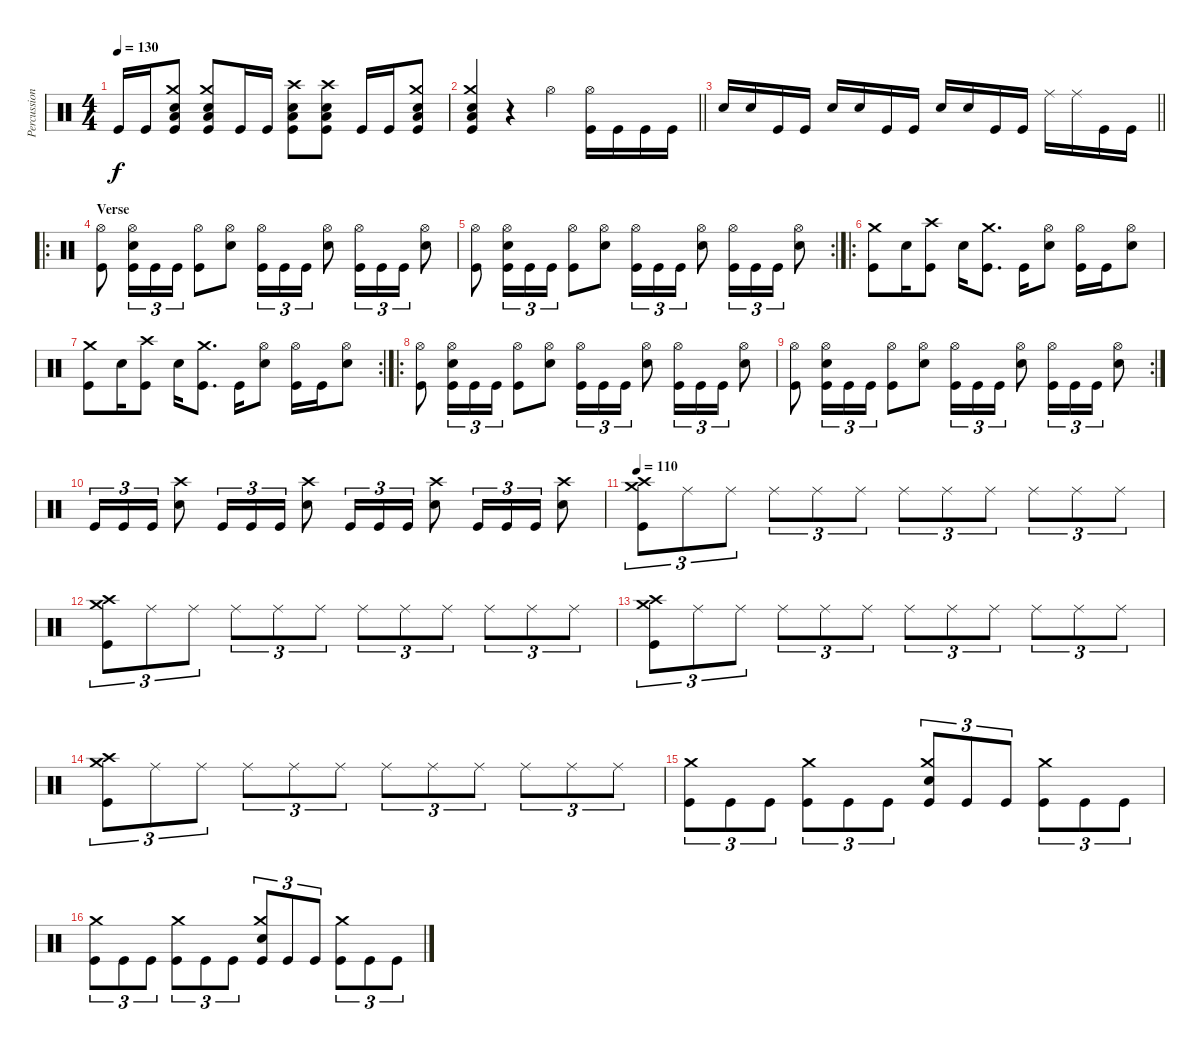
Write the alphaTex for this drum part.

\track ("Percussion" "Percussion") {instrument percussion}
\staff {score}
\articulation defaults
\ts (4 4)
\tempo 130
\clef neutral
\ks c "Kick (hit)".16{dy f} "Kick (hit)".16
("Crash medium (hit)" "Snare (hit) 2" "Low Floor Tom (hit)" "Kick (hit)").8 ("Crash medium (hit)" "Snare (hit) 2" "Low Floor Tom (hit)" "Kick (hit)").8 "Kick (hit)".16 "Kick (hit)".16 ("Crash high (hit)" "Snare (hit) 2" "Low Floor Tom (hit)" "Kick (hit)").8 ("Crash high (hit)" "Snare (hit) 2" "Low Floor Tom (hit)" "Kick (hit)").8 "Kick (hit)".16 "Kick (hit)".16 ("Crash medium (hit)" "Snare (hit) 2" "Low Floor Tom (hit)" "Kick (hit)").8 |
\barLineRight lightlight
("Crash medium (hit)" "Snare (hit) 2" "Low Floor Tom (hit)" "Kick (hit)").4 r.4 "Hi-Hat (open)".4 ("Hi-Hat (open)" "Kick (hit)").16 "Kick (hit)".16 "Kick (hit)".16 "Kick (hit)".16 |
\barLineRight lightlight "Snare (hit) 2".16 "Snare (hit) 2".16 "Kick (hit)".16 "Kick (hit)".16 "Snare (hit) 2".16 "Snare (hit) 2".16 "Kick (hit)".16 "Kick (hit)".16 "Snare (hit) 2".16 "Snare (hit) 2".16 "Kick (hit)".16 "Kick (hit)".16 "Ride (middle)".16 "Ride (middle)".16 "Kick (hit)".16 "Kick (hit)".16
|
\ro
\section ("" "Verse")
("Hi-Hat (open)" "Kick (hit)").8 ("Hi-Hat (open)" "Snare (hit) 2" "Kick (hit)").16{tu (3 2)} "Kick (hit)".16{tu (3 2)} "Kick (hit)".16{tu (3 2)} ("Hi-Hat (open)" "Kick (hit)").8 ("Hi-Hat (open)" "Snare (hit) 2").8 ("Hi-Hat (open)" "Kick (hit)").16{tu (3 2)} "Kick (hit)".16{tu (3 2)} "Kick (hit)".16{tu (3 2)} ("Hi-Hat (open)" "Snare (hit) 2").8 ("Hi-Hat (open)" "Kick (hit)").16{tu (3 2)} "Kick (hit)".16{tu (3 2)} "Kick (hit)".16{tu (3 2)} ("Hi-Hat (open)" "Snare (hit) 2").8 |
\rc 2
("Hi-Hat (open)" "Kick (hit)").8 ("Hi-Hat (open)" "Snare (hit) 2" "Kick (hit)").16{tu (3 2)} "Kick (hit)".16{tu (3 2)} "Kick (hit)".16{tu (3 2)} ("Hi-Hat (open)" "Kick (hit)").8 ("Hi-Hat (open)" "Snare (hit) 2").8 ("Hi-Hat (open)" "Kick (hit)").16{tu (3 2)} "Kick (hit)".16{tu (3 2)} "Kick (hit)".16{tu (3 2)} ("Hi-Hat (open)" "Snare (hit) 2").8 ("Hi-Hat (open)" "Kick (hit)").16{tu (3 2)} "Kick (hit)".16{tu (3 2)} "Kick (hit)".16{tu (3 2)} ("Hi-Hat (open)" "Snare (hit) 2").8 |
\ro
("Crash medium (hit)" "Kick (hit)").8 "Snare (hit) 2".16 ("Crash high (hit)" "Kick (hit)").8 "Snare (hit) 2".16 ("Crash medium (hit)" "Kick (hit)").8{d} "Kick (hit)".16 ("Hi-Hat (open)" "Snare (hit) 2").8 ("Hi-Hat (open)" "Kick (hit)").16 "Kick (hit)".16 ("Hi-Hat (open)" "Snare (hit) 2").8 |
\rc 2
("Crash medium (hit)" "Kick (hit)").8 "Snare (hit) 2".16 ("Crash high (hit)" "Kick (hit)").8 "Snare (hit) 2".16 ("Crash medium (hit)" "Kick (hit)").8{d} "Kick (hit)".16 ("Hi-Hat (open)" "Snare (hit) 2").8 ("Hi-Hat (open)" "Kick (hit)").16 "Kick (hit)".16 ("Hi-Hat (open)" "Snare (hit) 2").8 |
\ro
("Hi-Hat (open)" "Kick (hit)").8 ("Hi-Hat (open)" "Snare (hit) 2" "Kick (hit)").16{tu (3 2)} "Kick (hit)".16{tu (3 2)} "Kick (hit)".16{tu (3 2)} ("Hi-Hat (open)" "Kick (hit)").8 ("Hi-Hat (open)" "Snare (hit) 2").8 ("Hi-Hat (open)" "Kick (hit)").16{tu (3 2)} "Kick (hit)".16{tu (3 2)} "Kick (hit)".16{tu (3 2)} ("Hi-Hat (open)" "Snare (hit) 2").8 ("Hi-Hat (open)" "Kick (hit)").16{tu (3 2)} "Kick (hit)".16{tu (3 2)} "Kick (hit)".16{tu (3 2)} ("Hi-Hat (open)" "Snare (hit) 2").8 |
\rc 2
("Hi-Hat (open)" "Kick (hit)").8 ("Hi-Hat (open)" "Snare (hit) 2" "Kick (hit)").16{tu (3 2)} "Kick (hit)".16{tu (3 2)} "Kick (hit)".16{tu (3 2)} ("Hi-Hat (open)" "Kick (hit)").8 ("Hi-Hat (open)" "Snare (hit) 2").8 ("Hi-Hat (open)" "Kick (hit)").16{tu (3 2)} "Kick (hit)".16{tu (3 2)} "Kick (hit)".16{tu (3 2)} ("Hi-Hat (open)" "Snare (hit) 2").8 ("Hi-Hat (open)" "Kick (hit)").16{tu (3 2)} "Kick (hit)".16{tu (3 2)} "Kick (hit)".16{tu (3 2)} ("Hi-Hat (open)" "Snare (hit) 2").8 |
"Kick (hit)".16{tu (3 2)} "Kick (hit)".16{tu (3 2)} "Kick (hit)".16{tu (3 2)} ("Crash high (hit)" "Snare (hit) 2").8 "Kick (hit)".16{tu (3 2)} "Kick (hit)".16{tu (3 2)} "Kick (hit)".16{tu (3 2)} ("Crash high (hit)" "Snare (hit) 2").8 "Kick (hit)".16{tu (3 2)} "Kick (hit)".16{tu (3 2)} "Kick (hit)".16{tu (3 2)} ("Crash high (hit)" "Snare (hit) 2").8 "Kick (hit)".16{tu (3 2)} "Kick (hit)".16{tu (3 2)} "Kick (hit)".16{tu (3 2)} ("Crash high (hit)" "Snare (hit) 2").8 |
\tempo 110
("Crash medium (hit)" "Crash high (hit)" "Kick (hit)").8{tu (3 2)} "Ride (middle)".8{tu (3 2)} "Ride (middle)".8{tu (3 2)} "Ride (middle)".8{tu (3 2)} "Ride (middle)".8{tu (3 2)} "Ride (middle)".8{tu (3 2)} "Ride (middle)".8{tu (3 2)} "Ride (middle)".8{tu (3 2)} "Ride (middle)".8{tu (3 2)} "Ride (middle)".8{tu (3 2)} "Ride (middle)".8{tu (3 2)} "Ride (middle)".8{tu (3 2)} |
("Crash medium (hit)" "Crash high (hit)" "Kick (hit)").8{tu (3 2)} "Ride (middle)".8{tu (3 2)} "Ride (middle)".8{tu (3 2)} "Ride (middle)".8{tu (3 2)} "Ride (middle)".8{tu (3 2)} "Ride (middle)".8{tu (3 2)} "Ride (middle)".8{tu (3 2)} "Ride (middle)".8{tu (3 2)} "Ride (middle)".8{tu (3 2)} "Ride (middle)".8{tu (3 2)} "Ride (middle)".8{tu (3 2)} "Ride (middle)".8{tu (3 2)} |
("Crash medium (hit)" "Crash high (hit)" "Kick (hit)").8{tu (3 2)} "Ride (middle)".8{tu (3 2)} "Ride (middle)".8{tu (3 2)} "Ride (middle)".8{tu (3 2)} "Ride (middle)".8{tu (3 2)} "Ride (middle)".8{tu (3 2)} "Ride (middle)".8{tu (3 2)} "Ride (middle)".8{tu (3 2)} "Ride (middle)".8{tu (3 2)} "Ride (middle)".8{tu (3 2)} "Ride (middle)".8{tu (3 2)} "Ride (middle)".8{tu (3 2)} |
("Crash medium (hit)" "Crash high (hit)" "Kick (hit)").8{tu (3 2)} "Ride (middle)".8{tu (3 2)} "Ride (middle)".8{tu (3 2)} "Ride (middle)".8{tu (3 2)} "Ride (middle)".8{tu (3 2)} "Ride (middle)".8{tu (3 2)} "Ride (middle)".8{tu (3 2)} "Ride (middle)".8{tu (3 2)} "Ride (middle)".8{tu (3 2)} "Ride (middle)".8{tu (3 2)} "Ride (middle)".8{tu (3 2)} "Ride (middle)".8{tu (3 2)} |
("Crash medium (hit)" "Kick (hit)").8{tu (3 2)} "Kick (hit)".8{tu (3 2)} "Kick (hit)".8{tu (3 2)} ("Crash medium (hit)" "Kick (hit)").8{tu (3 2)} "Kick (hit)".8{tu (3 2)} "Kick (hit)".8{tu (3 2)} ("Crash medium (hit)" "Snare (hit) 2" "Kick (hit)").8{tu (3 2)} "Kick (hit)".8{tu (3 2)} "Kick (hit)".8{tu (3 2)} ("Crash medium (hit)" "Kick (hit)").8{tu (3 2)} "Kick (hit)".8{tu (3 2)} "Kick (hit)".8{tu (3 2)} |
("Crash medium (hit)" "Kick (hit)").8{tu (3 2)} "Kick (hit)".8{tu (3 2)} "Kick (hit)".8{tu (3 2)} ("Crash medium (hit)" "Kick (hit)").8{tu (3 2)} "Kick (hit)".8{tu (3 2)} "Kick (hit)".8{tu (3 2)} ("Crash medium (hit)" "Snare (hit) 2" "Kick (hit)").8{tu (3 2)} "Kick (hit)".8{tu (3 2)} "Kick (hit)".8{tu (3 2)} ("Crash medium (hit)" "Kick (hit)").8{tu (3 2)} "Kick (hit)".8{tu (3 2)} "Kick (hit)".8{tu (3 2)}
